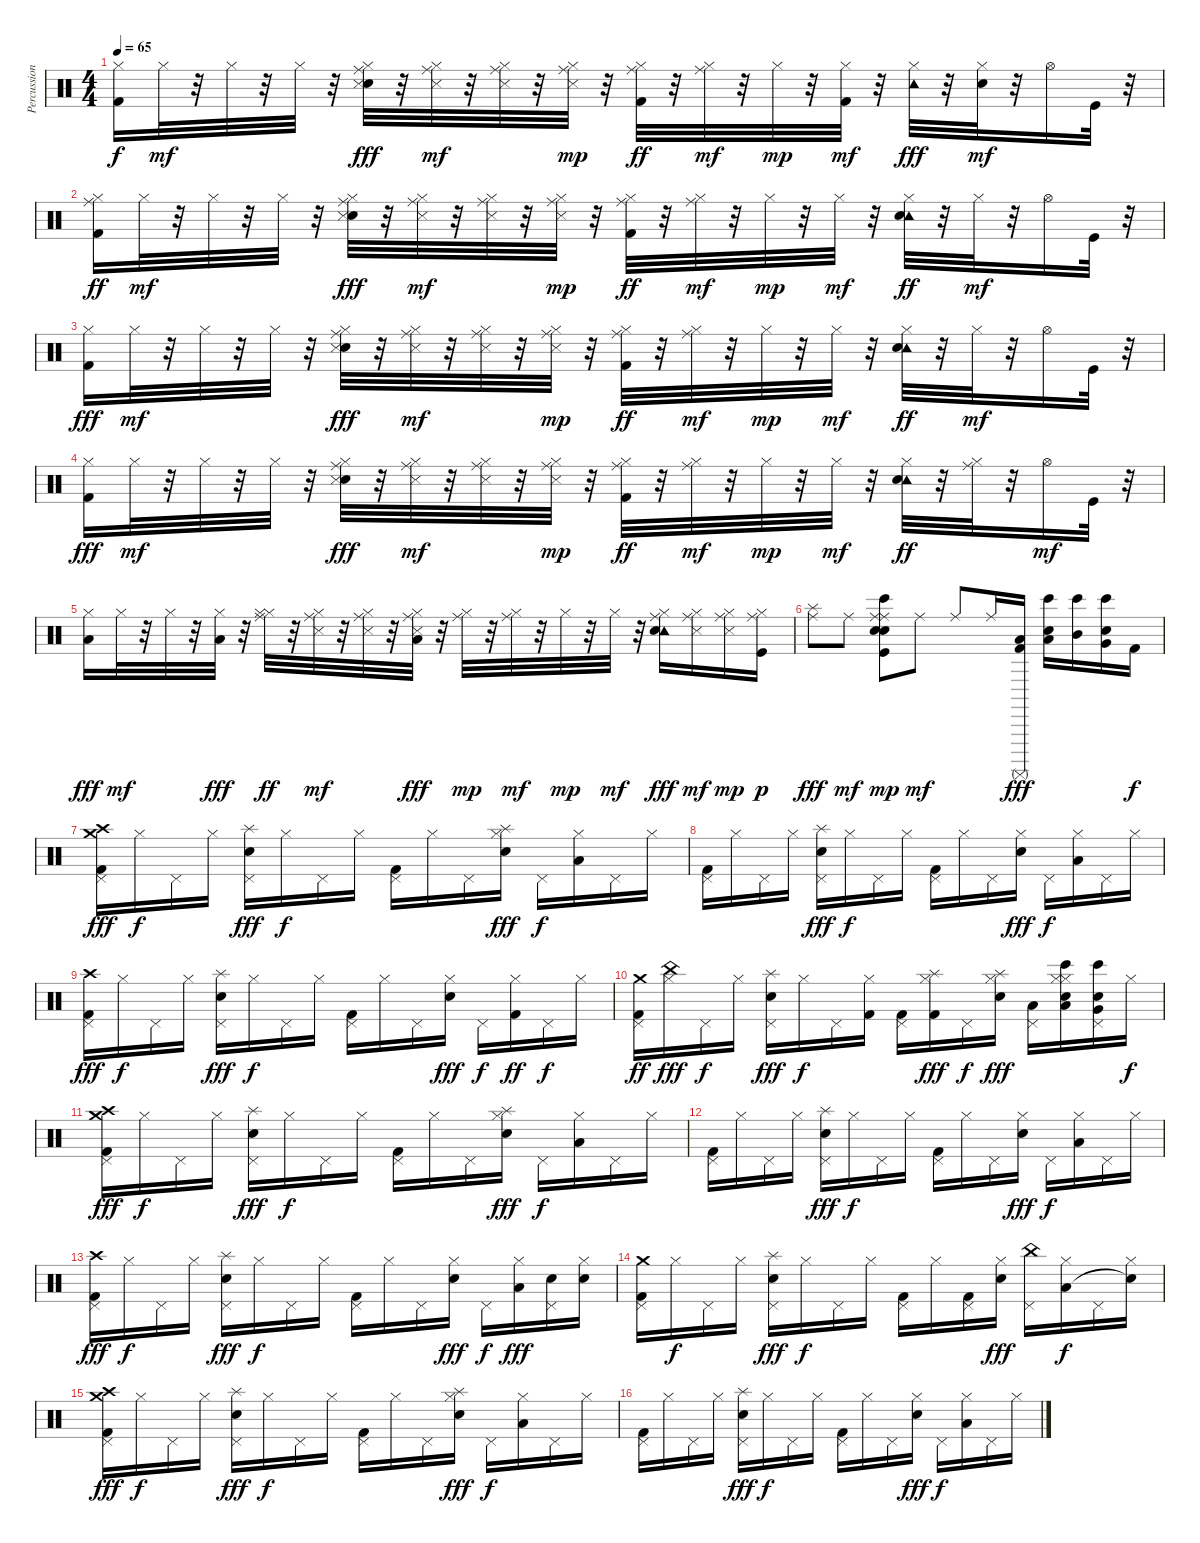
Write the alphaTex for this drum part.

\track ("Percussion" "Percussion") {instrument percussion}
\staff {score}
\articulation defaults
\ts (4 4)
\tempo 65
\clef neutral
\ks c
("Kick (hit) 2" "Hi-Hat (closed)").16{dy f} "Hi-Hat (closed)".32{dy mf} r.32 "Hi-Hat (closed)".32 r.32 "Hi-Hat (closed)".32 r.32 ("Hand Clap (hit)" "Ride (middle)" "Hi-Hat (closed)" "Snare (side stick) 3").32{dy fff} r.32 ("Hi-Hat (closed)" "Snare (side stick) 3" "Ride (middle)").32{dy mf} r.32 ("Ride (middle)" "Snare (side stick) 3" "Hi-Hat (closed)").32 r.32 ("Ride (middle)" "Hi-Hat (closed)" "Snare (side stick) 3").32{dy mp} r.32 ("Ride (middle)" "Hi-Hat (closed)" "Kick (hit) 2").32{dy ff} r.32 ("Ride (middle)" "Hi-Hat (closed)").32{dy mf} r.32 "Hi-Hat (closed)".32{dy mp} r.32 ("Hi-Hat (closed)" "Kick (hit) 2").32{dy mf} r.32 ("Hi-Hat (closed)" "Tambourine (hit)").32{dy fff} r.32 ("Hi-Hat (closed)" "Electric Snare (hit)").32{dy mf} r.32 "Hi-Hat (open)".16 "Kick (hit)".32 r.32 |
("Kick (hit) 2" "Hi-Hat (closed)" "Ride (middle)").16{dy ff} "Hi-Hat (closed)".32{dy mf} r.32 "Hi-Hat (closed)".32 r.32 "Hi-Hat (closed)".32 r.32 ("Hand Clap (hit)" "Ride (middle)" "Hi-Hat (closed)" "Snare (side stick) 3").32{dy fff} r.32 ("Hi-Hat (closed)" "Snare (side stick) 3" "Ride (middle)").32{dy mf} r.32 ("Ride (middle)" "Snare (side stick) 3" "Hi-Hat (closed)").32 r.32 ("Ride (middle)" "Hi-Hat (closed)" "Snare (side stick) 3").32{dy mp} r.32 ("Ride (middle)" "Hi-Hat (closed)" "Kick (hit) 2").32{dy ff} r.32 ("Ride (middle)" "Hi-Hat (closed)").32{dy mf} r.32 "Hi-Hat (closed)".32{dy mp} r.32 "Hi-Hat (closed)".32{dy mf} r.32 ("Hi-Hat (closed)" "Tambourine (hit)" "Electric Snare (hit)").32{dy ff} r.32 "Hi-Hat (closed)".32{dy mf} r.32 "Hi-Hat (open)".16 "Kick (hit)".32 r.32 |
("Kick (hit) 2" "Hi-Hat (closed)").16{dy fff} "Hi-Hat (closed)".32{dy mf} r.32 "Hi-Hat (closed)".32 r.32 "Hi-Hat (closed)".32 r.32 ("Hand Clap (hit)" "Ride (middle)" "Hi-Hat (closed)" "Snare (side stick) 3").32{dy fff} r.32 ("Hi-Hat (closed)" "Snare (side stick) 3" "Ride (middle)").32{dy mf} r.32 ("Ride (middle)" "Snare (side stick) 3" "Hi-Hat (closed)").32 r.32 ("Ride (middle)" "Hi-Hat (closed)" "Snare (side stick) 3").32{dy mp} r.32 ("Ride (middle)" "Hi-Hat (closed)" "Kick (hit) 2").32{dy ff} r.32 ("Ride (middle)" "Hi-Hat (closed)").32{dy mf} r.32 "Hi-Hat (closed)".32{dy mp} r.32 "Hi-Hat (closed)".32{dy mf} r.32 ("Hi-Hat (closed)" "Tambourine (hit)" "Electric Snare (hit)").32{dy ff} r.32 "Hi-Hat (closed)".32{dy mf} r.32 "Hi-Hat (open)".16 "Kick (hit)".32 r.32 |
("Kick (hit) 2" "Hi-Hat (closed)").16{dy fff} "Hi-Hat (closed)".32{dy mf} r.32 "Hi-Hat (closed)".32 r.32 "Hi-Hat (closed)".32 r.32 ("Hand Clap (hit)" "Ride (middle)" "Hi-Hat (closed)" "Snare (side stick) 3").32{dy fff} r.32 ("Hi-Hat (closed)" "Snare (side stick) 3" "Ride (middle)").32{dy mf} r.32 ("Ride (middle)" "Snare (side stick) 3" "Hi-Hat (closed)").32 r.32 ("Ride (middle)" "Hi-Hat (closed)" "Snare (side stick) 3").32{dy mp} r.32 ("Ride (middle)" "Hi-Hat (closed)" "Kick (hit) 2").32{dy ff} r.32 ("Ride (middle)" "Hi-Hat (closed)").32{dy mf} r.32 "Hi-Hat (closed)".32{dy mp} r.32 "Hi-Hat (closed)".32{dy mf} r.32 ("Hi-Hat (closed)" "Tambourine (hit)" "Electric Snare (hit)").32{dy ff} r.32 ("Hi-Hat (closed)" "Ride (middle)").32 r.32 "Hi-Hat (open)".16{dy mf} "Kick (hit)".32 r.32 |
("Low Floor Tom (hit)" "Hi-Hat (closed)").16{dy fff} "Hi-Hat (closed)".32{dy mf} r.32 "Hi-Hat (closed)".32 r.32 ("Hi-Hat (closed)" "Low Floor Tom (hit)").32{dy fff} r.32 ("Hi-Hat (closed)" "Ride (middle)" "Hi-Hat (closed)").32{dy ff} r.32 ("Hi-Hat (closed)" "Snare (side stick) 3" "Ride (middle)").32{dy mf} r.32 ("Ride (middle)" "Snare (side stick) 3" "Hi-Hat (closed)").32 r.32 ("Ride (middle)" "Hi-Hat (closed)" "Snare (side stick) 3" "Low Floor Tom (hit)").32{dy fff} r.32 ("Ride (middle)" "Hi-Hat (closed)").32{dy mp} r.32 ("Ride (middle)" "Hi-Hat (closed)").32{dy mf} r.32 "Hi-Hat (closed)".32{dy mp} r.32 "Hi-Hat (closed)".32{dy mf} r.32 ("Hi-Hat (closed)" "Tambourine (hit)" "Ride (middle)" "Hand Clap (hit)").16{dy fff} ("Hi-Hat (closed)" "Snare (side stick) 3" "Ride (middle)").16{dy mf} ("Hi-Hat (closed)" "Snare (side stick) 3" "Ride (middle)").16{dy mp} ("Kick (hit)" "Hi-Hat (closed)" "Ride (middle)").16{dy p} |
("Ride (middle)" "Splash (hit)").8{dy fff} "Ride (middle)".8{dy mf} ("Ride (middle)" "Bongo High (hit)" "Hand Clap (hit)" "Ride (middle)" "Kick (hit)" "Electric Snare (hit)").8{dy mp} "Ride (middle)".8{dy mf} "Ride (middle)".8 "Ride (middle)".16 ("Kick (hit) 2" "Low Floor Tom (hit)" "Surdo (mute)").16{dy fff} ("Low Tom (hit)" "Bongo High (hit)" "Electric Snare (hit)").16 ("Mid Tom (hit)" "Bongo High (hit)").16 ("Hand Clap (hit)" "Very Low Tom (hit)" "Bongo High (hit)").16 "Kick (hit) 2".16{dy f} |
("Pedal Hi-Hat (hit)" "Kick (hit) 2" "Crash medium (hit)" "Crash high (hit)").16{dy fff} "Hi-Hat (closed)".16{dy f} "Pedal Hi-Hat (hit)".16 "Hi-Hat (closed)".16 ("Pedal Hi-Hat (hit)" "Electric Snare (hit)" "Splash (hit)").16{dy fff} "Hi-Hat (closed)".16{dy f} "Pedal Hi-Hat (hit)".16 "Hi-Hat (closed)".16 ("Pedal Hi-Hat (hit)" "Kick (hit) 2").16 "Hi-Hat (closed)".16 "Pedal Hi-Hat (hit)".16 ("Hi-Hat (closed)" "Splash (hit)" "Electric Snare (hit)").16{dy fff} "Pedal Hi-Hat (hit)".16{dy f} ("Hi-Hat (closed)" "Low Floor Tom (hit)").16 "Pedal Hi-Hat (hit)".16 "Hi-Hat (closed)".16 |
("Pedal Hi-Hat (hit)" "Kick (hit) 2").16 "Hi-Hat (closed)".16 "Pedal Hi-Hat (hit)".16 "Hi-Hat (closed)".16 ("Pedal Hi-Hat (hit)" "Electric Snare (hit)" "Splash (hit)").16{dy fff} "Hi-Hat (closed)".16{dy f} "Pedal Hi-Hat (hit)".16 "Hi-Hat (closed)".16 ("Pedal Hi-Hat (hit)" "Kick (hit) 2").16 "Hi-Hat (closed)".16 "Pedal Hi-Hat (hit)".16 ("Hi-Hat (closed)" "Electric Snare (hit)").16{dy fff} "Pedal Hi-Hat (hit)".16{dy f} ("Hi-Hat (closed)" "Low Floor Tom (hit)").16 "Pedal Hi-Hat (hit)".16 "Hi-Hat (closed)".16 |
("Pedal Hi-Hat (hit)" "Kick (hit) 2" "Crash high (hit)").16{dy fff} "Hi-Hat (closed)".16{dy f} "Pedal Hi-Hat (hit)".16 "Hi-Hat (closed)".16 ("Pedal Hi-Hat (hit)" "Electric Snare (hit)" "Splash (hit)").16{dy fff} "Hi-Hat (closed)".16{dy f} "Pedal Hi-Hat (hit)".16 "Hi-Hat (closed)".16 ("Pedal Hi-Hat (hit)" "Kick (hit) 2").16 "Hi-Hat (closed)".16 "Pedal Hi-Hat (hit)".16 ("Hi-Hat (closed)" "Electric Snare (hit)").16{dy fff} "Pedal Hi-Hat (hit)".16{dy f} ("Hi-Hat (closed)" "Kick (hit) 2").16{dy ff} "Pedal Hi-Hat (hit)".16{dy f} "Hi-Hat (closed)".16 |
("Pedal Hi-Hat (hit)" "Kick (hit) 2" "Crash medium (hit)").16{dy ff} ("Hi-Hat (closed)" "China (hit)").16{dy fff} "Pedal Hi-Hat (hit)".16{dy f} "Hi-Hat (closed)".16 ("Pedal Hi-Hat (hit)" "Electric Snare (hit)" "Splash (hit)").16{dy fff} "Hi-Hat (closed)".16{dy f} "Pedal Hi-Hat (hit)".16 ("Hi-Hat (closed)" "Kick (hit) 2").16 ("Pedal Hi-Hat (hit)" "Kick (hit) 2").16 ("Hi-Hat (closed)" "Kick (hit) 2" "Splash (hit)").16{dy fff} "Pedal Hi-Hat (hit)".16{dy f} ("Hi-Hat (closed)" "Splash (hit)" "Electric Snare (hit)").16{dy fff} ("Pedal Hi-Hat (hit)" "Low Floor Tom (hit)").16 ("Hi-Hat (closed)" "Hand Clap (hit)" "Low Tom (hit)" "Hi-Hat (closed)" "Bongo High (hit)").16 ("Pedal Hi-Hat (hit)" "Bongo High (hit)" "Very Low Tom (hit)" "Hand Clap (hit)").16 "Hi-Hat (closed)".16{dy f} |
("Pedal Hi-Hat (hit)" "Kick (hit) 2" "Crash medium (hit)" "Crash high (hit)").16{dy fff} "Hi-Hat (closed)".16{dy f} "Pedal Hi-Hat (hit)".16 "Hi-Hat (closed)".16 ("Pedal Hi-Hat (hit)" "Electric Snare (hit)" "Splash (hit)").16{dy fff} "Hi-Hat (closed)".16{dy f} "Pedal Hi-Hat (hit)".16 "Hi-Hat (closed)".16 ("Pedal Hi-Hat (hit)" "Kick (hit) 2").16 "Hi-Hat (closed)".16 "Pedal Hi-Hat (hit)".16 ("Hi-Hat (closed)" "Splash (hit)" "Electric Snare (hit)").16{dy fff} "Pedal Hi-Hat (hit)".16{dy f} ("Hi-Hat (closed)" "Low Floor Tom (hit)").16 "Pedal Hi-Hat (hit)".16 "Hi-Hat (closed)".16 |
("Pedal Hi-Hat (hit)" "Kick (hit) 2").16 "Hi-Hat (closed)".16 "Pedal Hi-Hat (hit)".16 "Hi-Hat (closed)".16 ("Pedal Hi-Hat (hit)" "Electric Snare (hit)" "Splash (hit)").16{dy fff} "Hi-Hat (closed)".16{dy f} "Pedal Hi-Hat (hit)".16 "Hi-Hat (closed)".16 ("Pedal Hi-Hat (hit)" "Kick (hit) 2").16 "Hi-Hat (closed)".16 "Pedal Hi-Hat (hit)".16 ("Hi-Hat (closed)" "Electric Snare (hit)").16{dy fff} "Pedal Hi-Hat (hit)".16{dy f} ("Hi-Hat (closed)" "Low Floor Tom (hit)").16 "Pedal Hi-Hat (hit)".16 "Hi-Hat (closed)".16 |
("Pedal Hi-Hat (hit)" "Kick (hit) 2" "Crash high (hit)").16{dy fff} "Hi-Hat (closed)".16{dy f} "Pedal Hi-Hat (hit)".16 "Hi-Hat (closed)".16 ("Pedal Hi-Hat (hit)" "Electric Snare (hit)" "Splash (hit)").16{dy fff} "Hi-Hat (closed)".16{dy f} "Pedal Hi-Hat (hit)".16 "Hi-Hat (closed)".16 ("Pedal Hi-Hat (hit)" "Kick (hit) 2").16 "Hi-Hat (closed)".16 "Pedal Hi-Hat (hit)".16 ("Hi-Hat (closed)" "Electric Snare (hit)").16{dy fff} "Pedal Hi-Hat (hit)".16{dy f} ("Hi-Hat (closed)" "Low Floor Tom (hit)").16{dy fff} ("Pedal Hi-Hat (hit)" "Hand Clap (hit)").16 ("Hi-Hat (closed)" "Electric Snare (hit)").16 |
("Pedal Hi-Hat (hit)" "Kick (hit) 2" "Crash medium (hit)").16 "Hi-Hat (closed)".16{dy f} "Pedal Hi-Hat (hit)".16 "Hi-Hat (closed)".16 ("Pedal Hi-Hat (hit)" "Electric Snare (hit)" "Splash (hit)").16{dy fff} "Hi-Hat (closed)".16{dy f} "Pedal Hi-Hat (hit)".16 "Hi-Hat (closed)".16 ("Pedal Hi-Hat (hit)" "Kick (hit) 2").16 "Hi-Hat (closed)".16 ("Pedal Hi-Hat (hit)" "Kick (hit) 2").16 ("Hi-Hat (closed)" "Electric Snare (hit)").16{dy fff} ("Pedal Hi-Hat (hit)" "China (hit)").16 ("Hi-Hat (closed)" "Low Floor Tom (hit)").16{dy f} "Pedal Hi-Hat (hit)".16 ("Hi-Hat (closed)" "Snare (hit)"{t}).16 |
("Pedal Hi-Hat (hit)" "Kick (hit) 2" "Crash medium (hit)" "Crash high (hit)").16{dy fff} "Hi-Hat (closed)".16{dy f} "Pedal Hi-Hat (hit)".16 "Hi-Hat (closed)".16 ("Pedal Hi-Hat (hit)" "Electric Snare (hit)" "Splash (hit)").16{dy fff} "Hi-Hat (closed)".16{dy f} "Pedal Hi-Hat (hit)".16 "Hi-Hat (closed)".16 ("Pedal Hi-Hat (hit)" "Kick (hit) 2").16 "Hi-Hat (closed)".16 "Pedal Hi-Hat (hit)".16 ("Hi-Hat (closed)" "Splash (hit)" "Electric Snare (hit)").16{dy fff} "Pedal Hi-Hat (hit)".16{dy f} ("Hi-Hat (closed)" "Low Floor Tom (hit)").16 "Pedal Hi-Hat (hit)".16 "Hi-Hat (closed)".16 |
("Pedal Hi-Hat (hit)" "Kick (hit) 2").16 "Hi-Hat (closed)".16 "Pedal Hi-Hat (hit)".16 "Hi-Hat (closed)".16 ("Pedal Hi-Hat (hit)" "Electric Snare (hit)" "Splash (hit)").16{dy fff} "Hi-Hat (closed)".16{dy f} "Pedal Hi-Hat (hit)".16 "Hi-Hat (closed)".16 ("Pedal Hi-Hat (hit)" "Kick (hit) 2").16 "Hi-Hat (closed)".16 "Pedal Hi-Hat (hit)".16 ("Hi-Hat (closed)" "Electric Snare (hit)").16{dy fff} "Pedal Hi-Hat (hit)".16{dy f} ("Hi-Hat (closed)" "Low Floor Tom (hit)").16 "Pedal Hi-Hat (hit)".16 "Hi-Hat (closed)".16
